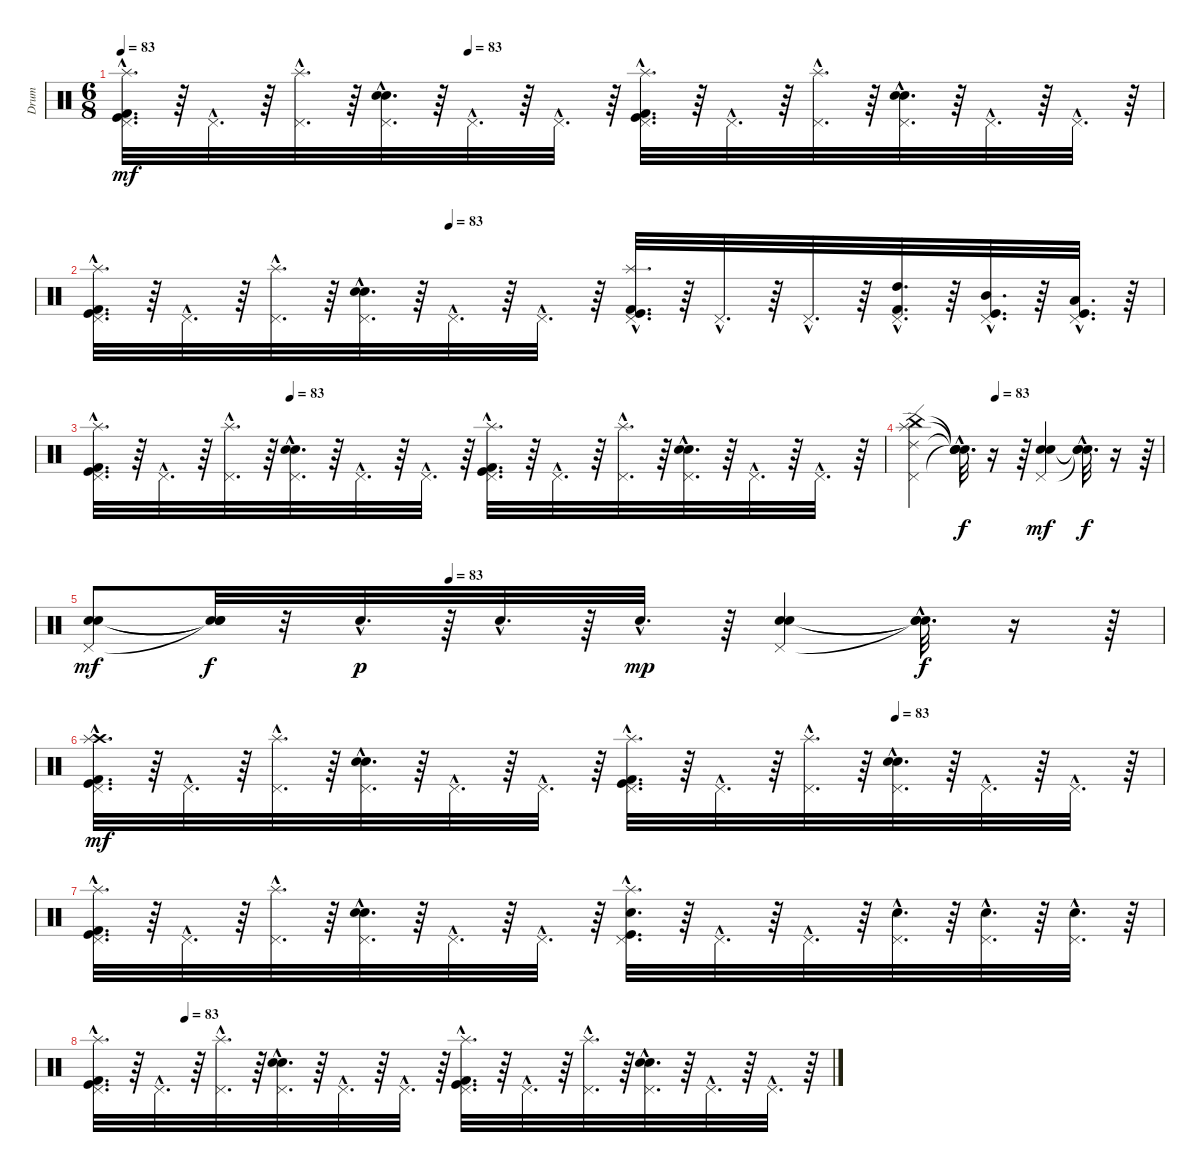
\track ("Drum" "Drum") {instrument percussion}
\staff {score}
\articulation defaults
\ts (6 8)
\tempo 83
\tempo (83 0.3333333333333333)
\clef neutral
\ks c
("Kick (hit) 2"{hac} "Splash (hit)"{hac} "Pedal Hi-Hat (hit)"{hac} "Kick (hit)"{hac}).32{d dy mf} r.64 "Pedal Hi-Hat (hit)"{hac}.32{d} r.64 ("Splash (hit)"{hac} "Pedal Hi-Hat (hit)"{hac}).32{d} r.64 ("Pedal Hi-Hat (hit)"{hac} "Snare (hit) 2"{hac} "Electric Snare (hit)"{hac}).32{d} r.64 "Pedal Hi-Hat (hit)"{hac}.32{d} r.64 "Pedal Hi-Hat (hit)"{hac}.32{d} r.64 ("Kick (hit) 2"{hac} "Kick (hit)"{hac} "Pedal Hi-Hat (hit)"{hac} "Splash (hit)"{hac}).32{d} r.64 "Pedal Hi-Hat (hit)"{hac}.32{d} r.64 ("Pedal Hi-Hat (hit)"{hac} "Splash (hit)"{hac}).32{d} r.64 ("Snare (hit) 2"{hac} "Electric Snare (hit)"{hac} "Pedal Hi-Hat (hit)"{hac}).32{d} r.64 "Pedal Hi-Hat (hit)"{hac}.32{d} r.64 "Pedal Hi-Hat (hit)"{hac}.32{d} r.64 |
\tempo (83 0.3333333333333333)
("Kick (hit) 2"{hac} "Pedal Hi-Hat (hit)"{hac} "Kick (hit)"{hac} "Splash (hit)"{hac}).32{d} r.64 "Pedal Hi-Hat (hit)"{hac}.32{d} r.64 ("Pedal Hi-Hat (hit)"{hac} "Splash (hit)"{hac}).32{d} r.64 ("Pedal Hi-Hat (hit)"{hac} "Electric Snare (hit)"{hac} "Snare (hit) 2"{hac}).32{d} r.64 "Pedal Hi-Hat (hit)"{hac}.32{d} r.64 "Pedal Hi-Hat (hit)"{hac}.32{d} r.64 ("Kick (hit) 2"{hac} "Pedal Hi-Hat (hit)"{hac} "Kick (hit)"{hac} "Splash (hit)"{hac}).32{d} r.64 "Pedal Hi-Hat (hit)"{hac}.32{d} r.64 "Pedal Hi-Hat (hit)"{hac}.32{d} r.64 ("Kick (hit) 2"{hac} "High Tom (hit)"{hac} "Pedal Hi-Hat (hit)"{hac}).32{d} r.64 ("Kick (hit)"{hac} "Pedal Hi-Hat (hit)"{hac} "Mid Tom (hit)"{hac}).32{d} r.64 ("Kick (hit)"{hac} "Pedal Hi-Hat (hit)"{hac} "Low Tom (hit)"{hac}).32{d} r.64 |
\tempo (83 0.25)
("Kick (hit) 2"{hac} "Splash (hit)"{hac} "Kick (hit)"{hac} "Pedal Hi-Hat (hit)"{hac}).32{d} r.64 "Pedal Hi-Hat (hit)"{hac}.32{d} r.64 ("Pedal Hi-Hat (hit)"{hac} "Splash (hit)"{hac}).32{d} r.64 ("Snare (hit) 2"{hac} "Pedal Hi-Hat (hit)"{hac} "Electric Snare (hit)"{hac}).32{d} r.64 "Pedal Hi-Hat (hit)"{hac}.32{d} r.64 "Pedal Hi-Hat (hit)"{hac}.32{d} r.64 ("Kick (hit) 2"{hac} "Splash (hit)"{hac} "Kick (hit)"{hac} "Pedal Hi-Hat (hit)"{hac}).32{d} r.64 "Pedal Hi-Hat (hit)"{hac}.32{d} r.64 ("Pedal Hi-Hat (hit)"{hac} "Splash (hit)"{hac}).32{d} r.64 ("Snare (hit) 2"{hac} "Electric Snare (hit)"{hac} "Pedal Hi-Hat (hit)"{hac}).32{d} r.64 "Pedal Hi-Hat (hit)"{hac}.32{d} r.64 "Pedal Hi-Hat (hit)"{hac}.32{d} r.64 |
\tempo (83 0.3333333333333333)
("China (hit)" "Splash (hit)" "Ride (edge) 2" "Pedal Hi-Hat (hit)").4 ("Snare (hit)"{hac t} "Snare (hit)"{hac t} "Snare (hit)"{hac t} "Snare (hit)"{hac t}).32{d dy f} r.16 r.64 ("Snare (hit) 2" "Electric Snare (hit)" "Pedal Hi-Hat (hit)").4{dy mf} ("Snare (hit)"{hac t} "Snare (hit)"{hac t} "Snare (hit)"{hac t}).32{d dy f} r.16 r.64 |
\tempo (83 0.3333333333333333)
("Snare (hit) 2" "Electric Snare (hit)" "Pedal Hi-Hat (hit)").8{dy mf} ("Snare (hit)"{t} "Snare (hit)"{t} "Snare (hit)"{t}).32{dy f} r.32 "Snare (hit) 2"{hac}.32{d dy p} r.64 "Snare (hit) 2"{hac}.32{d} r.64 "Snare (hit) 2"{hac}.32{d dy mp} r.64 ("Snare (hit) 2" "Electric Snare (hit)" "Pedal Hi-Hat (hit)").4 ("Snare (hit)"{hac t} "Snare (hit)"{hac t} "Snare (hit)"{hac t}).32{d dy f} r.16 r.64 |
\tempo (83 0.75)
("Kick (hit) 2"{hac} "Crash high (hit)"{hac} "Kick (hit)"{hac} "Splash (hit)"{hac} "Pedal Hi-Hat (hit)"{hac}).32{d dy mf} r.64 "Pedal Hi-Hat (hit)"{hac}.32{d} r.64 ("Pedal Hi-Hat (hit)"{hac} "Splash (hit)"{hac}).32{d} r.64 ("Pedal Hi-Hat (hit)"{hac} "Electric Snare (hit)"{hac} "Snare (hit) 2"{hac}).32{d} r.64 "Pedal Hi-Hat (hit)"{hac}.32{d} r.64 "Pedal Hi-Hat (hit)"{hac}.32{d} r.64 ("Kick (hit) 2"{hac} "Kick (hit)"{hac} "Splash (hit)"{hac} "Pedal Hi-Hat (hit)"{hac}).32{d} r.64 "Pedal Hi-Hat (hit)"{hac}.32{d} r.64 ("Pedal Hi-Hat (hit)"{hac} "Splash (hit)"{hac}).32{d} r.64 ("Pedal Hi-Hat (hit)"{hac} "Snare (hit) 2"{hac} "Electric Snare (hit)"{hac}).32{d} r.64 "Pedal Hi-Hat (hit)"{hac}.32{d} r.64 "Pedal Hi-Hat (hit)"{hac}.32{d} r.64 |
("Kick (hit) 2"{hac} "Pedal Hi-Hat (hit)"{hac} "Splash (hit)"{hac} "Kick (hit)"{hac}).32{d} r.64 "Pedal Hi-Hat (hit)"{hac}.32{d} r.64 ("Pedal Hi-Hat (hit)"{hac} "Splash (hit)"{hac}).32{d} r.64 ("Pedal Hi-Hat (hit)"{hac} "Snare (hit) 2"{hac} "Electric Snare (hit)"{hac}).32{d} r.64 "Pedal Hi-Hat (hit)"{hac}.32{d} r.64 "Pedal Hi-Hat (hit)"{hac}.32{d} r.64 ("Kick (hit)"{hac} "Pedal Hi-Hat (hit)"{hac} "Electric Snare (hit)"{hac} "Splash (hit)"{hac}).32{d} r.64 "Pedal Hi-Hat (hit)"{hac}.32{d} r.64 "Pedal Hi-Hat (hit)"{hac}.32{d} r.64 ("Snare (hit) 2"{hac} "Pedal Hi-Hat (hit)"{hac}).32{d} r.64 ("Pedal Hi-Hat (hit)"{hac} "Snare (hit) 2"{hac}).32{d} r.64 ("Snare (hit) 2"{hac} "Pedal Hi-Hat (hit)"{hac}).32{d} r.64 |
\tempo (83 0.125)
("Kick (hit) 2"{hac} "Kick (hit)"{hac} "Pedal Hi-Hat (hit)"{hac} "Splash (hit)"{hac}).32{d} r.64 "Pedal Hi-Hat (hit)"{hac}.32{d} r.64 ("Splash (hit)"{hac} "Pedal Hi-Hat (hit)"{hac}).32{d} r.64 ("Snare (hit) 2"{hac} "Electric Snare (hit)"{hac} "Pedal Hi-Hat (hit)"{hac}).32{d} r.64 "Pedal Hi-Hat (hit)"{hac}.32{d} r.64 "Pedal Hi-Hat (hit)"{hac}.32{d} r.64 ("Kick (hit) 2"{hac} "Splash (hit)"{hac} "Kick (hit)"{hac} "Pedal Hi-Hat (hit)"{hac}).32{d} r.64 "Pedal Hi-Hat (hit)"{hac}.32{d} r.64 ("Pedal Hi-Hat (hit)"{hac} "Splash (hit)"{hac}).32{d} r.64 ("Pedal Hi-Hat (hit)"{hac} "Electric Snare (hit)"{hac} "Snare (hit) 2"{hac}).32{d} r.64 "Pedal Hi-Hat (hit)"{hac}.32{d} r.64 "Pedal Hi-Hat (hit)"{hac}.32{d} r.64
